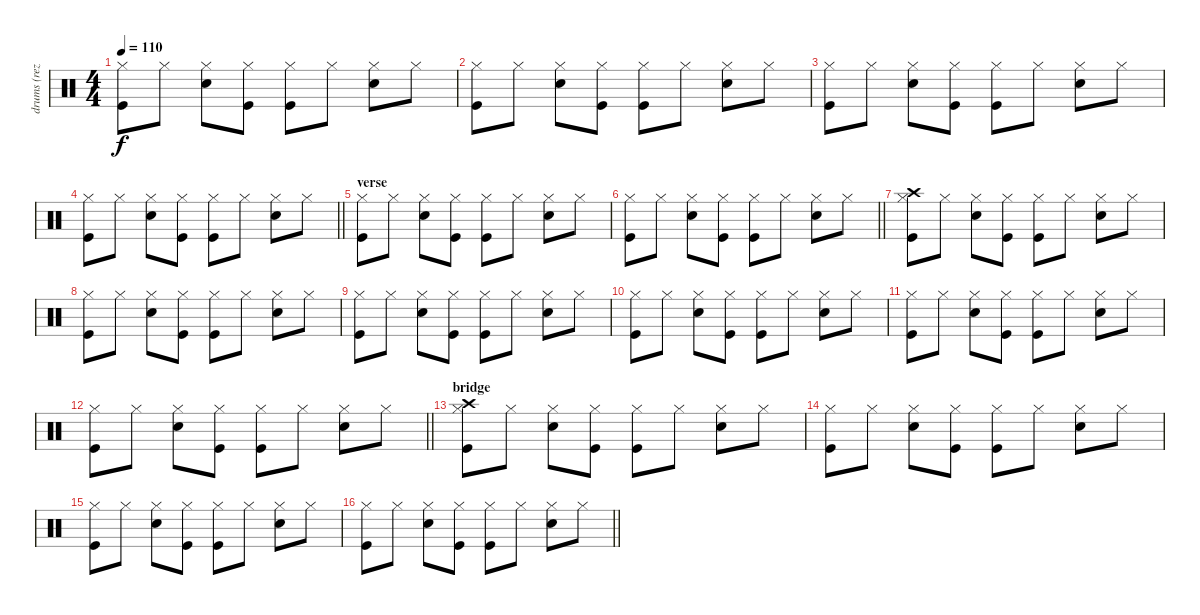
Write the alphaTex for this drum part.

\track ("drums (reza)" "drums (rez") {instrument percussion}
\staff {score}
\articulation defaults
\ts (4 4)
\tempo 110
\clef neutral
\ks c
("Hi-Hat (closed)" "Kick (hit)").8{dy f} "Hi-Hat (closed)".8 ("Hi-Hat (closed)" "Snare (hit) 2").8 ("Hi-Hat (closed)" "Kick (hit)").8 ("Hi-Hat (closed)" "Kick (hit)").8 "Hi-Hat (closed)".8 ("Hi-Hat (closed)" "Snare (hit) 2").8 "Hi-Hat (closed)".8 |
("Hi-Hat (closed)" "Kick (hit)").8 "Hi-Hat (closed)".8 ("Hi-Hat (closed)" "Snare (hit) 2").8 ("Hi-Hat (closed)" "Kick (hit)").8 ("Hi-Hat (closed)" "Kick (hit)").8 "Hi-Hat (closed)".8 ("Hi-Hat (closed)" "Snare (hit) 2").8 "Hi-Hat (closed)".8 |
("Hi-Hat (closed)" "Kick (hit)").8 "Hi-Hat (closed)".8 ("Hi-Hat (closed)" "Snare (hit) 2").8 ("Hi-Hat (closed)" "Kick (hit)").8 ("Hi-Hat (closed)" "Kick (hit)").8 "Hi-Hat (closed)".8 ("Hi-Hat (closed)" "Snare (hit) 2").8 "Hi-Hat (closed)".8 |
\barLineRight lightlight
("Hi-Hat (closed)" "Kick (hit)").8 "Hi-Hat (closed)".8 ("Hi-Hat (closed)" "Snare (hit) 2").8 ("Hi-Hat (closed)" "Kick (hit)").8 ("Hi-Hat (closed)" "Kick (hit)").8 "Hi-Hat (closed)".8 ("Hi-Hat (closed)" "Snare (hit) 2").8 "Hi-Hat (closed)".8 |
\section ("" "verse")
("Hi-Hat (closed)" "Kick (hit)").8 "Hi-Hat (closed)".8 ("Hi-Hat (closed)" "Snare (hit) 2").8 ("Hi-Hat (closed)" "Kick (hit)").8 ("Hi-Hat (closed)" "Kick (hit)").8 "Hi-Hat (closed)".8 ("Hi-Hat (closed)" "Snare (hit) 2").8 "Hi-Hat (closed)".8 |
\barLineRight lightlight
("Hi-Hat (closed)" "Kick (hit)").8 "Hi-Hat (closed)".8 ("Hi-Hat (closed)" "Snare (hit) 2").8 ("Hi-Hat (closed)" "Kick (hit)").8 ("Hi-Hat (closed)" "Kick (hit)").8 "Hi-Hat (closed)".8 ("Hi-Hat (closed)" "Snare (hit) 2").8 "Hi-Hat (closed)".8 |
("Hi-Hat (closed)" "Kick (hit)" "Crash high (hit)").8 "Hi-Hat (closed)".8 ("Hi-Hat (closed)" "Snare (hit) 2").8 ("Hi-Hat (closed)" "Kick (hit)").8 ("Hi-Hat (closed)" "Kick (hit)").8 "Hi-Hat (closed)".8 ("Hi-Hat (closed)" "Snare (hit) 2").8 "Hi-Hat (closed)".8 |
("Hi-Hat (closed)" "Kick (hit)").8 "Hi-Hat (closed)".8 ("Hi-Hat (closed)" "Snare (hit) 2").8 ("Hi-Hat (closed)" "Kick (hit)").8 ("Hi-Hat (closed)" "Kick (hit)").8 "Hi-Hat (closed)".8 ("Hi-Hat (closed)" "Snare (hit) 2").8 "Hi-Hat (closed)".8 |
("Hi-Hat (closed)" "Kick (hit)").8 "Hi-Hat (closed)".8 ("Hi-Hat (closed)" "Snare (hit) 2").8 ("Hi-Hat (closed)" "Kick (hit)").8 ("Hi-Hat (closed)" "Kick (hit)").8 "Hi-Hat (closed)".8 ("Hi-Hat (closed)" "Snare (hit) 2").8 "Hi-Hat (closed)".8 |
("Hi-Hat (closed)" "Kick (hit)").8 "Hi-Hat (closed)".8 ("Hi-Hat (closed)" "Snare (hit) 2").8 ("Hi-Hat (closed)" "Kick (hit)").8 ("Hi-Hat (closed)" "Kick (hit)").8 "Hi-Hat (closed)".8 ("Hi-Hat (closed)" "Snare (hit) 2").8 "Hi-Hat (closed)".8 |
("Hi-Hat (closed)" "Kick (hit)").8 "Hi-Hat (closed)".8 ("Hi-Hat (closed)" "Snare (hit) 2").8 ("Hi-Hat (closed)" "Kick (hit)").8 ("Hi-Hat (closed)" "Kick (hit)").8 "Hi-Hat (closed)".8 ("Hi-Hat (closed)" "Snare (hit) 2").8 "Hi-Hat (closed)".8 |
\barLineRight lightlight
("Hi-Hat (closed)" "Kick (hit)").8 "Hi-Hat (closed)".8 ("Hi-Hat (closed)" "Snare (hit) 2").8 ("Hi-Hat (closed)" "Kick (hit)").8 ("Hi-Hat (closed)" "Kick (hit)").8 "Hi-Hat (closed)".8 ("Hi-Hat (closed)" "Snare (hit) 2").8 "Hi-Hat (closed)".8 |
\section ("" "bridge")
("Hi-Hat (closed)" "Kick (hit)" "Crash high (hit)").8 "Hi-Hat (closed)".8 ("Hi-Hat (closed)" "Snare (hit) 2").8 ("Hi-Hat (closed)" "Kick (hit)").8 ("Hi-Hat (closed)" "Kick (hit)").8 "Hi-Hat (closed)".8 ("Hi-Hat (closed)" "Snare (hit) 2").8 "Hi-Hat (closed)".8 |
("Hi-Hat (closed)" "Kick (hit)").8 "Hi-Hat (closed)".8 ("Hi-Hat (closed)" "Snare (hit) 2").8 ("Hi-Hat (closed)" "Kick (hit)").8 ("Hi-Hat (closed)" "Kick (hit)").8 "Hi-Hat (closed)".8 ("Hi-Hat (closed)" "Snare (hit) 2").8 "Hi-Hat (closed)".8 |
("Hi-Hat (closed)" "Kick (hit)").8 "Hi-Hat (closed)".8 ("Hi-Hat (closed)" "Snare (hit) 2").8 ("Hi-Hat (closed)" "Kick (hit)").8 ("Hi-Hat (closed)" "Kick (hit)").8 "Hi-Hat (closed)".8 ("Hi-Hat (closed)" "Snare (hit) 2").8 "Hi-Hat (closed)".8 |
\barLineRight lightlight
("Hi-Hat (closed)" "Kick (hit)").8 "Hi-Hat (closed)".8 ("Hi-Hat (closed)" "Snare (hit) 2").8 ("Hi-Hat (closed)" "Kick (hit)").8 ("Hi-Hat (closed)" "Kick (hit)").8 "Hi-Hat (closed)".8 ("Hi-Hat (closed)" "Snare (hit) 2").8 "Hi-Hat (closed)".8
